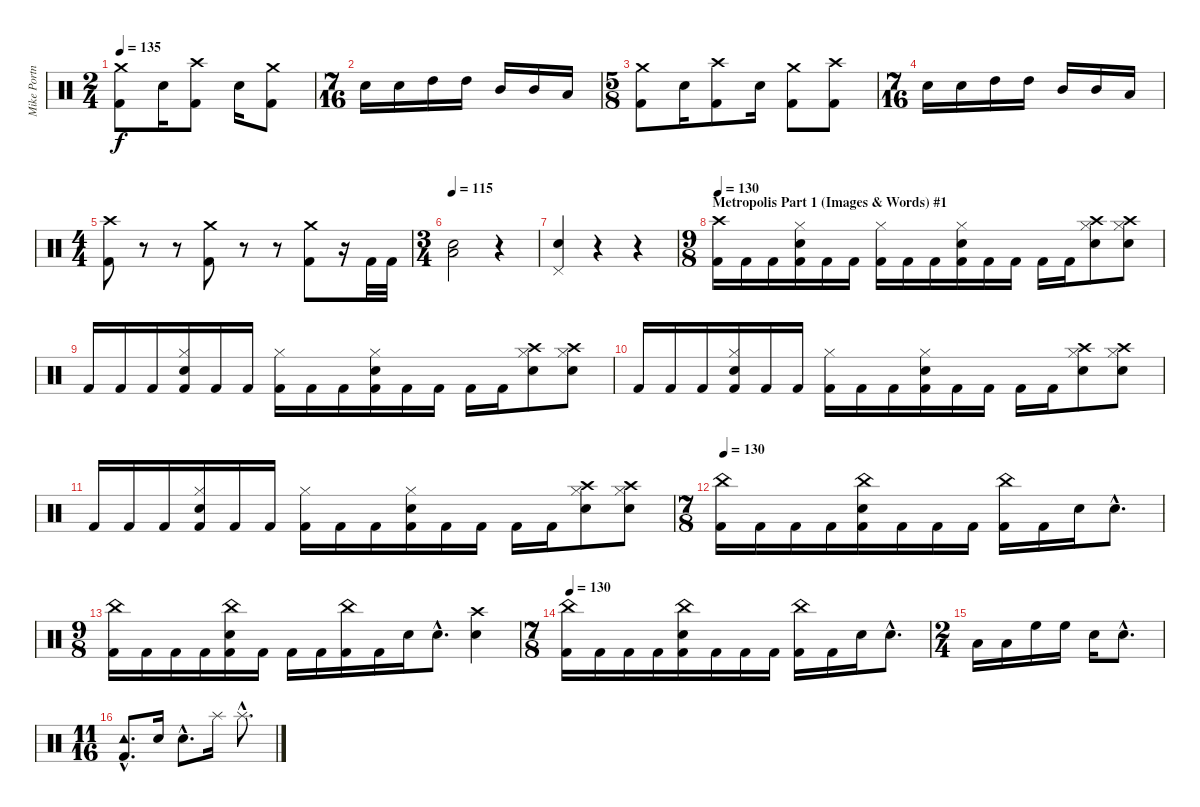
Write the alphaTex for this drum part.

\track ("Mike Portnoy Drums" "Mike Portn") {instrument percussion}
\staff {score}
\articulation defaults
\ts (2 4)
\tempo 135
\clef neutral
\ks c
("Crash medium (hit)" "Kick (hit) 2").8{dy f} "Snare (hit) 2".16 ("Crash high (hit)" "Kick (hit) 2").8 "Snare (hit) 2".16 ("Crash medium (hit)" "Kick (hit) 2").8 |
\ts (7 16)
"Snare (hit) 2".16 "Snare (hit) 2".16 "High Tom (hit)".16 "High Tom (hit)".16 "Mid Tom (hit)".16 "Mid Tom (hit)".16 "Low Tom (hit)".16 |
\ts (5 8)
("Crash medium (hit)" "Kick (hit) 2").8 "Snare (hit) 2".16 ("Crash high (hit)" "Kick (hit) 2").8 "Snare (hit) 2".16 ("Crash medium (hit)" "Kick (hit) 2").8 ("Crash high (hit)" "Kick (hit) 2").8 |
\ts (7 16)
"Snare (hit) 2".16 "Snare (hit) 2".16 "High Tom (hit)".16 "High Tom (hit)".16 "Mid Tom (hit)".16 "Mid Tom (hit)".16 "Low Tom (hit)".16 |
\ts (4 4)
("Crash high (hit)" "Kick (hit) 2").8 r.8 r.8 ("Crash medium (hit)" "Kick (hit) 2").8 r.8 r.8 ("Crash medium (hit)" "Kick (hit) 2").8 r.16 "Kick (hit) 2".32 "Kick (hit) 2".32 |
\ts (3 4)
\tempo 115
("Snare (hit) 2" "Low Floor Tom (hit)").2 r.4 |
("Snare (hit) 2" "Pedal Hi-Hat (hit)").4 r.4 r.4 |
\ts (9 8)
\section ("" "Metropolis Part 1 (Images & Words) #1")
\tempo 130
("Crash high (hit)" "Kick (hit) 2").16 "Kick (hit) 2".16 "Kick (hit) 2".16 ("Hi-Hat (closed)" "Electric Snare (hit)" "Kick (hit) 2").16 "Kick (hit) 2".16 "Kick (hit) 2".16 ("Hi-Hat (closed)" "Kick (hit) 2").16 "Kick (hit) 2".16 "Kick (hit) 2".16 ("Hi-Hat (closed)" "Electric Snare (hit)" "Kick (hit) 2").16 "Kick (hit) 2".16 "Kick (hit) 2".16 "Kick (hit) 2".16 "Kick (hit) 2".16 ("Hi-Hat (closed)" "Electric Snare (hit)" "Crash high (hit)").8 ("Hi-Hat (closed)" "Electric Snare (hit)" "Crash high (hit)").8 |
"Kick (hit) 2".16 "Kick (hit) 2".16 "Kick (hit) 2".16 ("Hi-Hat (closed)" "Electric Snare (hit)" "Kick (hit) 2").16 "Kick (hit) 2".16 "Kick (hit) 2".16 ("Hi-Hat (closed)" "Kick (hit) 2").16 "Kick (hit) 2".16 "Kick (hit) 2".16 ("Hi-Hat (closed)" "Electric Snare (hit)" "Kick (hit) 2").16 "Kick (hit) 2".16 "Kick (hit) 2".16 "Kick (hit) 2".16 "Kick (hit) 2".16 ("Hi-Hat (closed)" "Electric Snare (hit)" "Crash high (hit)").8 ("Hi-Hat (closed)" "Electric Snare (hit)" "Crash high (hit)").8 |
"Kick (hit) 2".16 "Kick (hit) 2".16 "Kick (hit) 2".16 ("Hi-Hat (closed)" "Electric Snare (hit)" "Kick (hit) 2").16 "Kick (hit) 2".16 "Kick (hit) 2".16 ("Hi-Hat (closed)" "Kick (hit) 2").16 "Kick (hit) 2".16 "Kick (hit) 2".16 ("Hi-Hat (closed)" "Electric Snare (hit)" "Kick (hit) 2").16 "Kick (hit) 2".16 "Kick (hit) 2".16 "Kick (hit) 2".16 "Kick (hit) 2".16 ("Hi-Hat (closed)" "Electric Snare (hit)" "Crash high (hit)").8 ("Hi-Hat (closed)" "Electric Snare (hit)" "Crash high (hit)").8 |
"Kick (hit) 2".16 "Kick (hit) 2".16 "Kick (hit) 2".16 ("Hi-Hat (closed)" "Electric Snare (hit)" "Kick (hit) 2").16 "Kick (hit) 2".16 "Kick (hit) 2".16 ("Hi-Hat (closed)" "Kick (hit) 2").16 "Kick (hit) 2".16 "Kick (hit) 2".16 ("Hi-Hat (closed)" "Electric Snare (hit)" "Kick (hit) 2").16 "Kick (hit) 2".16 "Kick (hit) 2".16 "Kick (hit) 2".16 "Kick (hit) 2".16 ("Hi-Hat (closed)" "Electric Snare (hit)" "Crash high (hit)").8 ("Hi-Hat (closed)" "Electric Snare (hit)" "Crash high (hit)").8 |
\ts (7 8)
\tempo 130
("China (hit)" "Kick (hit) 2").16 "Kick (hit) 2".16 "Kick (hit) 2".16 "Kick (hit) 2".16 ("China (hit)" "Electric Snare (hit)" "Kick (hit) 2").16 "Kick (hit) 2".16 "Kick (hit) 2".16 "Kick (hit) 2".16 ("China (hit)" "Kick (hit) 2").16 "Kick (hit) 2".16 "Electric Snare (hit)".16 "Electric Snare (hit)"{hac}.8{d} |
\ts (9 8)
("China (hit)" "Kick (hit) 2").16 "Kick (hit) 2".16 "Kick (hit) 2".16 "Kick (hit) 2".16 ("China (hit)" "Electric Snare (hit)" "Kick (hit) 2").16 "Kick (hit) 2".16 "Kick (hit) 2".16 "Kick (hit) 2".16 ("China (hit)" "Kick (hit) 2").16 "Kick (hit) 2".16 "Electric Snare (hit)".16 "Electric Snare (hit)"{hac}.8{d} ("Crash high (hit)" "Electric Snare (hit)").4 |
\ts (7 8)
\tempo 130
("China (hit)" "Kick (hit) 2").16 "Kick (hit) 2".16 "Kick (hit) 2".16 "Kick (hit) 2".16 ("China (hit)" "Electric Snare (hit)" "Kick (hit) 2").16 "Kick (hit) 2".16 "Kick (hit) 2".16 "Kick (hit) 2".16 ("China (hit)" "Kick (hit) 2").16 "Kick (hit) 2".16 "Electric Snare (hit)".16 "Electric Snare (hit)"{hac}.8{d} |
\ts (2 4)
"Low Tom (hit)".16 "Low Tom (hit)".16 "High Floor Tom (hit)".16 "High Floor Tom (hit)".16 "Electric Snare (hit)".16 "Electric Snare (hit)"{hac}.8{d} |
\ts (11 16)
("Tambourine (hit)"{hac} "Kick (hit) 2"{hac}).8{d} "Electric Snare (hit)".16 "Electric Snare (hit)"{hac}.8{d} "Splash (hit)".16 "Splash (hit)"{hac}.8{d}
